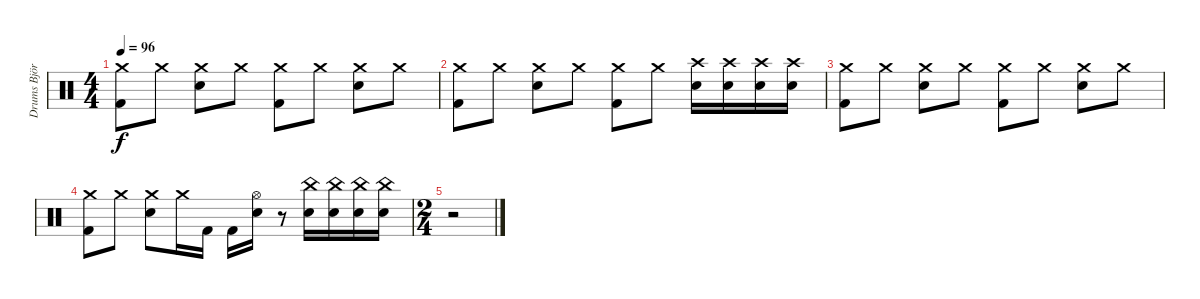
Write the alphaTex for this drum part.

\track ("Drums Björn Fryklund" "Drums Björ") {instrument percussion}
\staff {score}
\articulation defaults
\ts (4 4)
\tempo 96
\clef neutral
\ks c
("Crash medium (hit)" "Kick (hit) 2").8{dy f} "Crash medium (hit)".8 ("Crash medium (hit)" "Snare (hit) 2").8 "Crash medium (hit)".8 ("Crash medium (hit)" "Kick (hit) 2").8 "Crash medium (hit)".8 ("Crash medium (hit)" "Snare (hit) 2").8 "Crash medium (hit)".8 |
("Crash medium (hit)" "Kick (hit) 2").8 "Crash medium (hit)".8 ("Crash medium (hit)" "Snare (hit) 2").8 "Crash medium (hit)".8 ("Crash medium (hit)" "Kick (hit) 2").8 "Crash medium (hit)".8 ("Crash high (hit)" "Snare (hit) 2").16 ("Crash high (hit)" "Snare (hit) 2").16 ("Crash high (hit)" "Snare (hit) 2").16 ("Crash high (hit)" "Snare (hit) 2").16 |
("Crash medium (hit)" "Kick (hit) 2").8 "Crash medium (hit)".8 ("Crash medium (hit)" "Snare (hit) 2").8 "Crash medium (hit)".8 ("Crash medium (hit)" "Kick (hit) 2").8 "Crash medium (hit)".8 ("Crash medium (hit)" "Snare (hit) 2").8 "Crash medium (hit)".8 |
("Crash medium (hit)" "Kick (hit) 2").8 "Crash medium (hit)".8 ("Crash medium (hit)" "Snare (hit) 2").8 "Crash medium (hit)".16 "Kick (hit) 2".16 "Kick (hit) 2".16 ("Hi-Hat (open)" "Snare (hit) 2").16 r.8 ("China (hit)" "Snare (hit) 2").16 ("China (hit)" "Snare (hit) 2").16 ("China (hit)" "Snare (hit) 2").16 ("China (hit)" "Snare (hit) 2").16 |
\ts (2 4)
r.2
